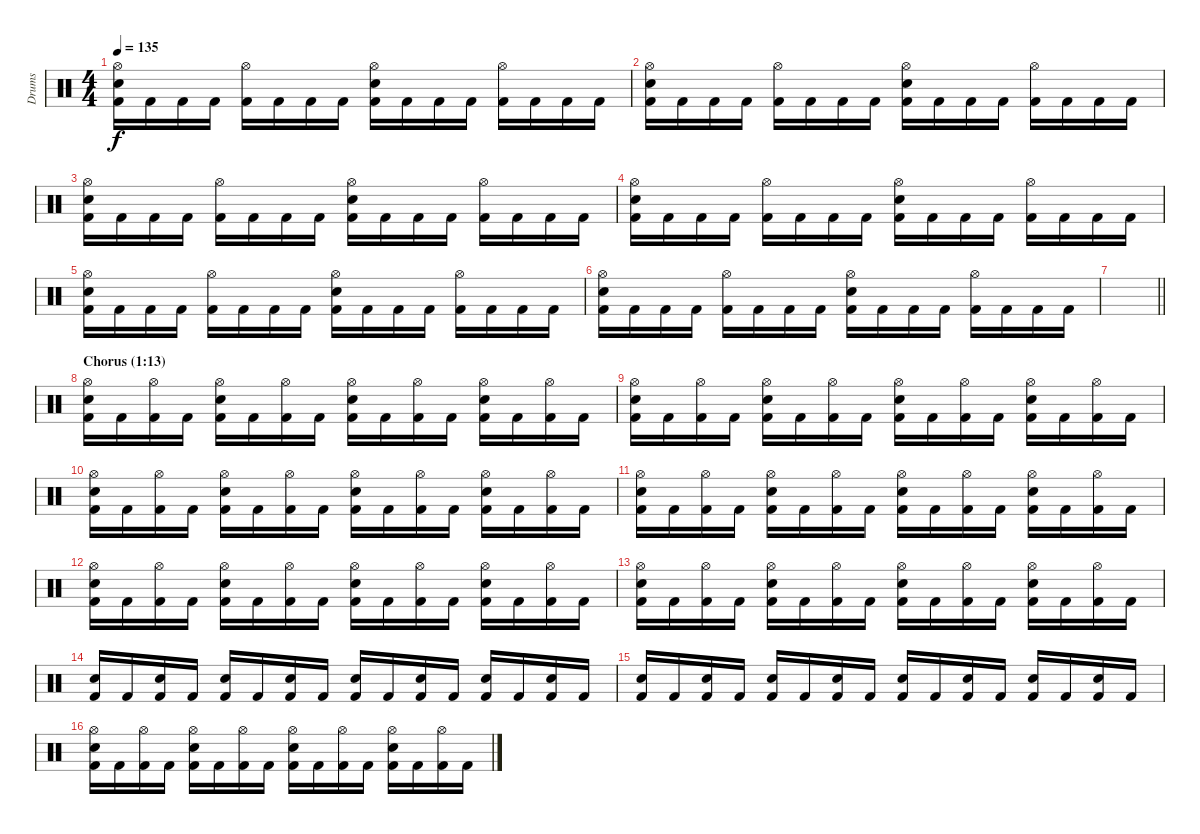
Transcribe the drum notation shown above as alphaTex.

\track ("Drums" "Drums") {instrument percussion}
\staff {score}
\articulation defaults
\ts (4 4)
\tempo 135
\clef neutral
\ks c
("Hi-Hat (open)" "Electric Snare (hit)" "Kick (hit) 2").16{dy f} "Kick (hit) 2".16 "Kick (hit) 2".16 "Kick (hit) 2".16 ("Hi-Hat (open)" "Kick (hit) 2").16 "Kick (hit) 2".16 "Kick (hit) 2".16 "Kick (hit) 2".16 ("Hi-Hat (open)" "Electric Snare (hit)" "Kick (hit) 2").16 "Kick (hit) 2".16 "Kick (hit) 2".16 "Kick (hit) 2".16 ("Hi-Hat (open)" "Kick (hit) 2").16 "Kick (hit) 2".16 "Kick (hit) 2".16 "Kick (hit) 2".16 |
("Hi-Hat (open)" "Electric Snare (hit)" "Kick (hit) 2").16 "Kick (hit) 2".16 "Kick (hit) 2".16 "Kick (hit) 2".16 ("Hi-Hat (open)" "Kick (hit) 2").16 "Kick (hit) 2".16 "Kick (hit) 2".16 "Kick (hit) 2".16 ("Hi-Hat (open)" "Electric Snare (hit)" "Kick (hit) 2").16 "Kick (hit) 2".16 "Kick (hit) 2".16 "Kick (hit) 2".16 ("Hi-Hat (open)" "Kick (hit) 2").16 "Kick (hit) 2".16 "Kick (hit) 2".16 "Kick (hit) 2".16 |
("Hi-Hat (open)" "Electric Snare (hit)" "Kick (hit) 2").16 "Kick (hit) 2".16 "Kick (hit) 2".16 "Kick (hit) 2".16 ("Hi-Hat (open)" "Kick (hit) 2").16 "Kick (hit) 2".16 "Kick (hit) 2".16 "Kick (hit) 2".16 ("Hi-Hat (open)" "Electric Snare (hit)" "Kick (hit) 2").16 "Kick (hit) 2".16 "Kick (hit) 2".16 "Kick (hit) 2".16 ("Hi-Hat (open)" "Kick (hit) 2").16 "Kick (hit) 2".16 "Kick (hit) 2".16 "Kick (hit) 2".16 |
("Hi-Hat (open)" "Electric Snare (hit)" "Kick (hit) 2").16 "Kick (hit) 2".16 "Kick (hit) 2".16 "Kick (hit) 2".16 ("Hi-Hat (open)" "Kick (hit) 2").16 "Kick (hit) 2".16 "Kick (hit) 2".16 "Kick (hit) 2".16 ("Hi-Hat (open)" "Electric Snare (hit)" "Kick (hit) 2").16 "Kick (hit) 2".16 "Kick (hit) 2".16 "Kick (hit) 2".16 ("Hi-Hat (open)" "Kick (hit) 2").16 "Kick (hit) 2".16 "Kick (hit) 2".16 "Kick (hit) 2".16 |
("Hi-Hat (open)" "Electric Snare (hit)" "Kick (hit) 2").16 "Kick (hit) 2".16 "Kick (hit) 2".16 "Kick (hit) 2".16 ("Hi-Hat (open)" "Kick (hit) 2").16 "Kick (hit) 2".16 "Kick (hit) 2".16 "Kick (hit) 2".16 ("Hi-Hat (open)" "Electric Snare (hit)" "Kick (hit) 2").16 "Kick (hit) 2".16 "Kick (hit) 2".16 "Kick (hit) 2".16 ("Hi-Hat (open)" "Kick (hit) 2").16 "Kick (hit) 2".16 "Kick (hit) 2".16 "Kick (hit) 2".16 |
("Hi-Hat (open)" "Electric Snare (hit)" "Kick (hit) 2").16 "Kick (hit) 2".16 "Kick (hit) 2".16 "Kick (hit) 2".16 ("Hi-Hat (open)" "Kick (hit) 2").16 "Kick (hit) 2".16 "Kick (hit) 2".16 "Kick (hit) 2".16 ("Hi-Hat (open)" "Electric Snare (hit)" "Kick (hit) 2").16 "Kick (hit) 2".16 "Kick (hit) 2".16 "Kick (hit) 2".16 ("Hi-Hat (open)" "Kick (hit) 2").16 "Kick (hit) 2".16 "Kick (hit) 2".16 "Kick (hit) 2".16 |
\barLineRight lightlight
|
\section ("" "Chorus (1:13)")
("Hi-Hat (open)" "Electric Snare (hit)" "Kick (hit) 2").16 "Kick (hit) 2".16 ("Hi-Hat (open)" "Kick (hit) 2").16 "Kick (hit) 2".16 ("Hi-Hat (open)" "Electric Snare (hit)" "Kick (hit) 2").16 "Kick (hit) 2".16 ("Hi-Hat (open)" "Kick (hit) 2").16 "Kick (hit) 2".16 ("Hi-Hat (open)" "Electric Snare (hit)" "Kick (hit) 2").16 "Kick (hit) 2".16 ("Hi-Hat (open)" "Kick (hit) 2").16 "Kick (hit) 2".16 ("Hi-Hat (open)" "Electric Snare (hit)" "Kick (hit) 2").16 "Kick (hit) 2".16 ("Hi-Hat (open)" "Kick (hit) 2").16 "Kick (hit) 2".16 |
("Hi-Hat (open)" "Electric Snare (hit)" "Kick (hit) 2").16 "Kick (hit) 2".16 ("Hi-Hat (open)" "Kick (hit) 2").16 "Kick (hit) 2".16 ("Hi-Hat (open)" "Electric Snare (hit)" "Kick (hit) 2").16 "Kick (hit) 2".16 ("Hi-Hat (open)" "Kick (hit) 2").16 "Kick (hit) 2".16 ("Hi-Hat (open)" "Electric Snare (hit)" "Kick (hit) 2").16 "Kick (hit) 2".16 ("Hi-Hat (open)" "Kick (hit) 2").16 "Kick (hit) 2".16 ("Hi-Hat (open)" "Electric Snare (hit)" "Kick (hit) 2").16 "Kick (hit) 2".16 ("Hi-Hat (open)" "Kick (hit) 2").16 "Kick (hit) 2".16 |
("Hi-Hat (open)" "Electric Snare (hit)" "Kick (hit) 2").16 "Kick (hit) 2".16 ("Hi-Hat (open)" "Kick (hit) 2").16 "Kick (hit) 2".16 ("Hi-Hat (open)" "Electric Snare (hit)" "Kick (hit) 2").16 "Kick (hit) 2".16 ("Hi-Hat (open)" "Kick (hit) 2").16 "Kick (hit) 2".16 ("Hi-Hat (open)" "Electric Snare (hit)" "Kick (hit) 2").16 "Kick (hit) 2".16 ("Hi-Hat (open)" "Kick (hit) 2").16 "Kick (hit) 2".16 ("Hi-Hat (open)" "Electric Snare (hit)" "Kick (hit) 2").16 "Kick (hit) 2".16 ("Hi-Hat (open)" "Kick (hit) 2").16 "Kick (hit) 2".16 |
("Hi-Hat (open)" "Electric Snare (hit)" "Kick (hit) 2").16 "Kick (hit) 2".16 ("Hi-Hat (open)" "Kick (hit) 2").16 "Kick (hit) 2".16 ("Hi-Hat (open)" "Electric Snare (hit)" "Kick (hit) 2").16 "Kick (hit) 2".16 ("Hi-Hat (open)" "Kick (hit) 2").16 "Kick (hit) 2".16 ("Hi-Hat (open)" "Electric Snare (hit)" "Kick (hit) 2").16 "Kick (hit) 2".16 ("Hi-Hat (open)" "Kick (hit) 2").16 "Kick (hit) 2".16 ("Hi-Hat (open)" "Electric Snare (hit)" "Kick (hit) 2").16 "Kick (hit) 2".16 ("Hi-Hat (open)" "Kick (hit) 2").16 "Kick (hit) 2".16 |
("Hi-Hat (open)" "Electric Snare (hit)" "Kick (hit) 2").16 "Kick (hit) 2".16 ("Hi-Hat (open)" "Kick (hit) 2").16 "Kick (hit) 2".16 ("Hi-Hat (open)" "Electric Snare (hit)" "Kick (hit) 2").16 "Kick (hit) 2".16 ("Hi-Hat (open)" "Kick (hit) 2").16 "Kick (hit) 2".16 ("Hi-Hat (open)" "Electric Snare (hit)" "Kick (hit) 2").16 "Kick (hit) 2".16 ("Hi-Hat (open)" "Kick (hit) 2").16 "Kick (hit) 2".16 ("Hi-Hat (open)" "Electric Snare (hit)" "Kick (hit) 2").16 "Kick (hit) 2".16 ("Hi-Hat (open)" "Kick (hit) 2").16 "Kick (hit) 2".16 |
("Hi-Hat (open)" "Electric Snare (hit)" "Kick (hit) 2").16 "Kick (hit) 2".16 ("Hi-Hat (open)" "Kick (hit) 2").16 "Kick (hit) 2".16 ("Hi-Hat (open)" "Electric Snare (hit)" "Kick (hit) 2").16 "Kick (hit) 2".16 ("Hi-Hat (open)" "Kick (hit) 2").16 "Kick (hit) 2".16 ("Hi-Hat (open)" "Electric Snare (hit)" "Kick (hit) 2").16 "Kick (hit) 2".16 ("Hi-Hat (open)" "Kick (hit) 2").16 "Kick (hit) 2".16 ("Hi-Hat (open)" "Electric Snare (hit)" "Kick (hit) 2").16 "Kick (hit) 2".16 ("Hi-Hat (open)" "Kick (hit) 2").16 "Kick (hit) 2".16 |
("Electric Snare (hit)" "Kick (hit) 2").16 "Kick (hit) 2".16 ("Electric Snare (hit)" "Kick (hit) 2").16 "Kick (hit) 2".16 ("Electric Snare (hit)" "Kick (hit) 2").16 "Kick (hit) 2".16 ("Electric Snare (hit)" "Kick (hit) 2").16 "Kick (hit) 2".16 ("Electric Snare (hit)" "Kick (hit) 2").16 "Kick (hit) 2".16 ("Electric Snare (hit)" "Kick (hit) 2").16 "Kick (hit) 2".16 ("Electric Snare (hit)" "Kick (hit) 2").16 "Kick (hit) 2".16 ("Electric Snare (hit)" "Kick (hit) 2").16 "Kick (hit) 2".16 |
("Electric Snare (hit)" "Kick (hit) 2").16 "Kick (hit) 2".16 ("Electric Snare (hit)" "Kick (hit) 2").16 "Kick (hit) 2".16 ("Electric Snare (hit)" "Kick (hit) 2").16 "Kick (hit) 2".16 ("Electric Snare (hit)" "Kick (hit) 2").16 "Kick (hit) 2".16 ("Electric Snare (hit)" "Kick (hit) 2").16 "Kick (hit) 2".16 ("Electric Snare (hit)" "Kick (hit) 2").16 "Kick (hit) 2".16 ("Electric Snare (hit)" "Kick (hit) 2").16 "Kick (hit) 2".16 ("Electric Snare (hit)" "Kick (hit) 2").16 "Kick (hit) 2".16 |
("Hi-Hat (open)" "Electric Snare (hit)" "Kick (hit) 2").16 "Kick (hit) 2".16 ("Hi-Hat (open)" "Kick (hit) 2").16 "Kick (hit) 2".16 ("Hi-Hat (open)" "Electric Snare (hit)" "Kick (hit) 2").16 "Kick (hit) 2".16 ("Hi-Hat (open)" "Kick (hit) 2").16 "Kick (hit) 2".16 ("Hi-Hat (open)" "Electric Snare (hit)" "Kick (hit) 2").16 "Kick (hit) 2".16 ("Hi-Hat (open)" "Kick (hit) 2").16 "Kick (hit) 2".16 ("Hi-Hat (open)" "Electric Snare (hit)" "Kick (hit) 2").16 "Kick (hit) 2".16 ("Hi-Hat (open)" "Kick (hit) 2").16 "Kick (hit) 2".16
